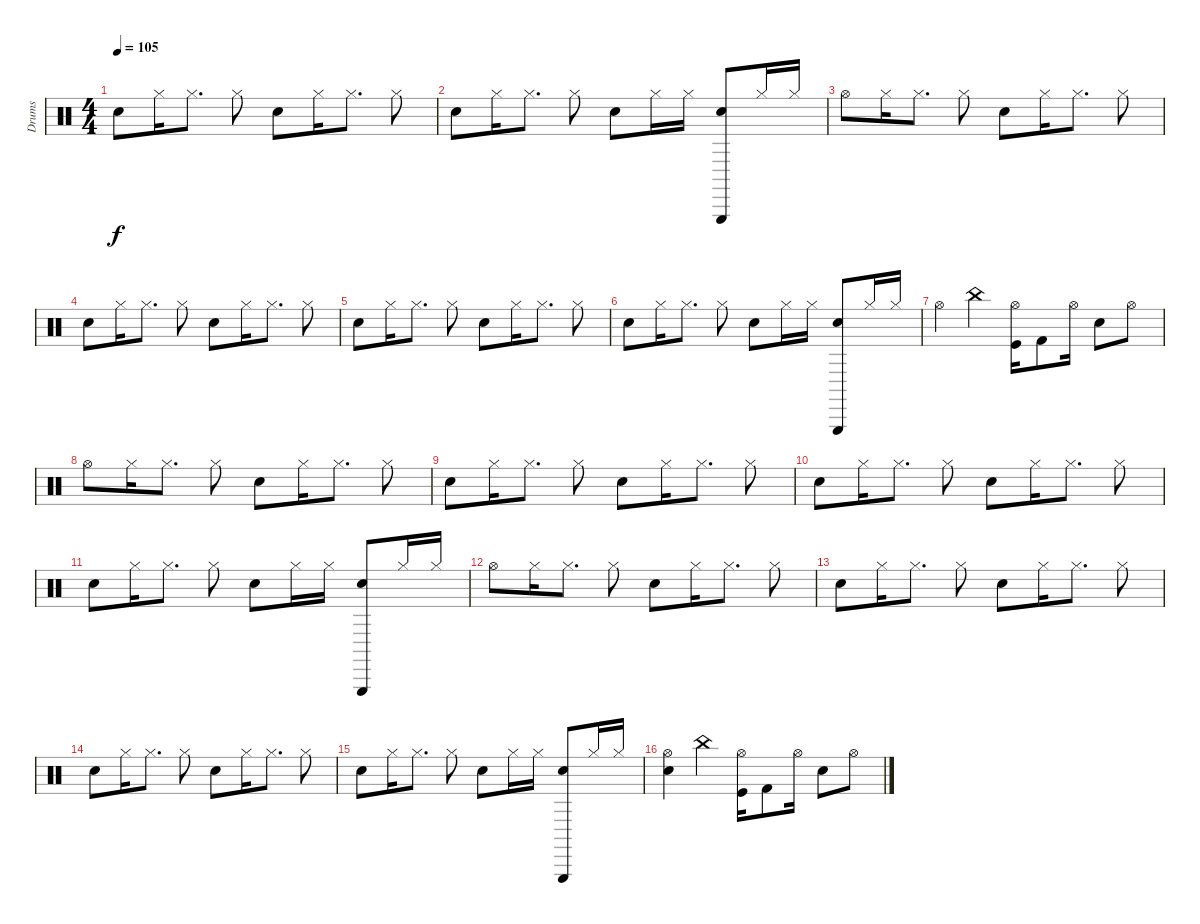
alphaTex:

\track ("Drums" "Drums") {instrument percussion}
\staff {score}
\articulation defaults
\ts (4 4)
\tempo 105
\clef neutral
\ks c "Electric Snare (hit)".8{dy f} "Hi-Hat (closed)".16 "Hi-Hat (closed)".8{d} "Hi-Hat (closed)".8 "Electric Snare (hit)".8 "Hi-Hat (closed)".16 "Hi-Hat (closed)".8{d} "Hi-Hat (closed)".8
|
"Electric Snare (hit)".8 "Hi-Hat (closed)".16 "Hi-Hat (closed)".8{d} "Hi-Hat (closed)".8 "Electric Snare (hit)".8 "Hi-Hat (closed)".16 "Hi-Hat (closed)".16 ("Triangle (hit)" "Electric Snare (hit)").8 "Hi-Hat (closed)".16 "Hi-Hat (closed)".16 |
"Hi-Hat (open)".8 "Hi-Hat (closed)".16 "Hi-Hat (closed)".8{d} "Hi-Hat (closed)".8 "Electric Snare (hit)".8 "Hi-Hat (closed)".16 "Hi-Hat (closed)".8{d} "Hi-Hat (closed)".8 |
"Electric Snare (hit)".8 "Hi-Hat (closed)".16 "Hi-Hat (closed)".8{d} "Hi-Hat (closed)".8 "Electric Snare (hit)".8 "Hi-Hat (closed)".16 "Hi-Hat (closed)".8{d} "Hi-Hat (closed)".8 |
"Electric Snare (hit)".8 "Hi-Hat (closed)".16 "Hi-Hat (closed)".8{d} "Hi-Hat (closed)".8 "Electric Snare (hit)".8 "Hi-Hat (closed)".16 "Hi-Hat (closed)".8{d} "Hi-Hat (closed)".8 |
"Electric Snare (hit)".8 "Hi-Hat (closed)".16 "Hi-Hat (closed)".8{d} "Hi-Hat (closed)".8 "Electric Snare (hit)".8 "Hi-Hat (closed)".16 "Hi-Hat (closed)".16 ("Triangle (hit)" "Electric Snare (hit)").8 "Hi-Hat (closed)".16 "Hi-Hat (closed)".16 |
"Hi-Hat (open)".4 "China (hit)".4 ("Kick (hit)" "Hi-Hat (open)").16 "Kick (hit) 2".8 "Hi-Hat (open)".16 "Electric Snare (hit)".8 "Hi-Hat (open)".8 |
"Hi-Hat (open)".8 "Hi-Hat (closed)".16 "Hi-Hat (closed)".8{d} "Hi-Hat (closed)".8 "Electric Snare (hit)".8 "Hi-Hat (closed)".16 "Hi-Hat (closed)".8{d} "Hi-Hat (closed)".8 |
"Electric Snare (hit)".8 "Hi-Hat (closed)".16 "Hi-Hat (closed)".8{d} "Hi-Hat (closed)".8 "Electric Snare (hit)".8 "Hi-Hat (closed)".16 "Hi-Hat (closed)".8{d} "Hi-Hat (closed)".8 |
"Electric Snare (hit)".8 "Hi-Hat (closed)".16 "Hi-Hat (closed)".8{d} "Hi-Hat (closed)".8 "Electric Snare (hit)".8 "Hi-Hat (closed)".16 "Hi-Hat (closed)".8{d} "Hi-Hat (closed)".8 |
"Electric Snare (hit)".8 "Hi-Hat (closed)".16 "Hi-Hat (closed)".8{d} "Hi-Hat (closed)".8 "Electric Snare (hit)".8 "Hi-Hat (closed)".16 "Hi-Hat (closed)".16 ("Triangle (hit)" "Electric Snare (hit)").8 "Hi-Hat (closed)".16 "Hi-Hat (closed)".16 |
"Hi-Hat (open)".8 "Hi-Hat (closed)".16 "Hi-Hat (closed)".8{d} "Hi-Hat (closed)".8 "Electric Snare (hit)".8 "Hi-Hat (closed)".16 "Hi-Hat (closed)".8{d} "Hi-Hat (closed)".8 |
"Electric Snare (hit)".8 "Hi-Hat (closed)".16 "Hi-Hat (closed)".8{d} "Hi-Hat (closed)".8 "Electric Snare (hit)".8 "Hi-Hat (closed)".16 "Hi-Hat (closed)".8{d} "Hi-Hat (closed)".8 |
"Electric Snare (hit)".8 "Hi-Hat (closed)".16 "Hi-Hat (closed)".8{d} "Hi-Hat (closed)".8 "Electric Snare (hit)".8 "Hi-Hat (closed)".16 "Hi-Hat (closed)".8{d} "Hi-Hat (closed)".8 |
"Electric Snare (hit)".8 "Hi-Hat (closed)".16 "Hi-Hat (closed)".8{d} "Hi-Hat (closed)".8 "Electric Snare (hit)".8 "Hi-Hat (closed)".16 "Hi-Hat (closed)".16 ("Triangle (hit)" "Electric Snare (hit)").8 "Hi-Hat (closed)".16 "Hi-Hat (closed)".16 |
("Snare (hit)" "Hi-Hat (open)").4 "China (hit)".4 ("Kick (hit)" "Hi-Hat (open)").16 "Kick (hit) 2".8 "Hi-Hat (open)".16 "Electric Snare (hit)".8 "Hi-Hat (open)".8
